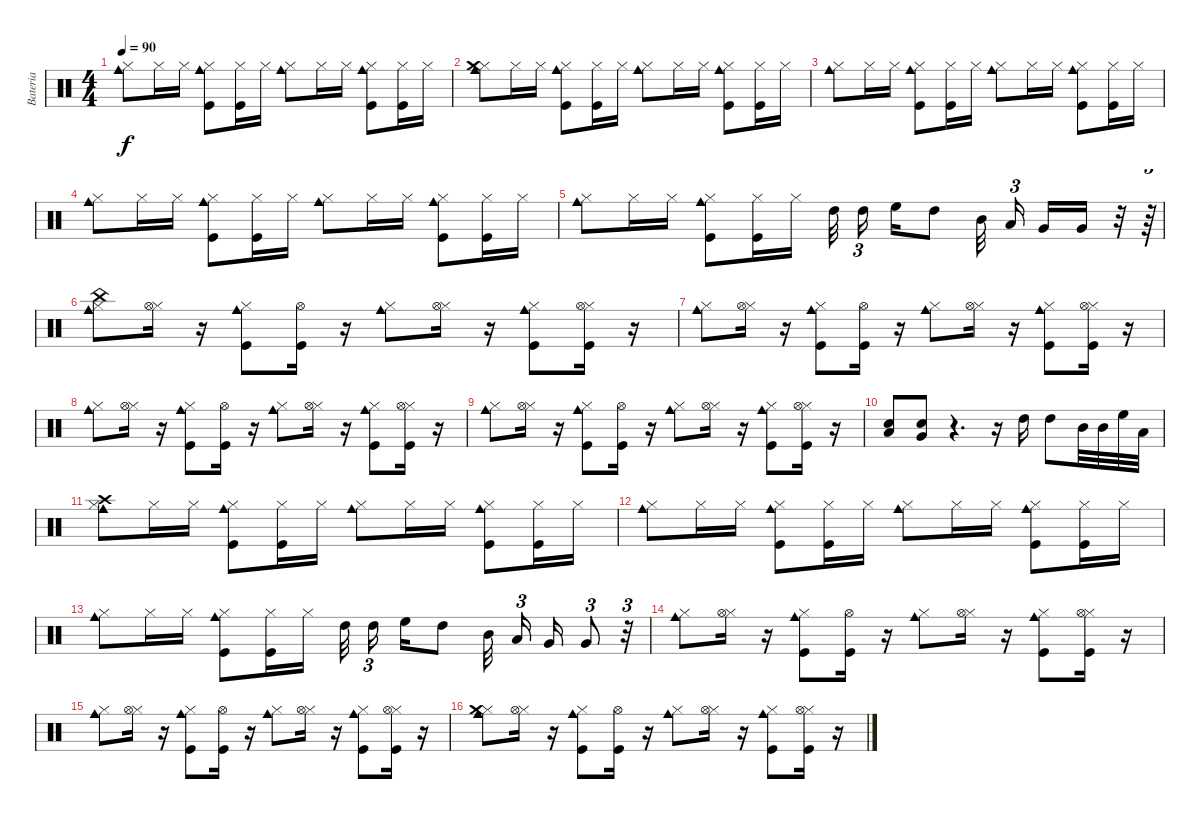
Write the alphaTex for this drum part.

\track ("Bateria" "Bateria") {instrument percussion}
\staff {score}
\articulation defaults
\ts (4 4)
\tempo 90
\clef neutral
\ks c
("Hi-Hat (closed)" "Cowbell medium (hit)").8{dy f} "Hi-Hat (closed)".16 "Hi-Hat (closed)".16 ("Hi-Hat (closed)" "Kick (hit)" "Cowbell medium (hit)").8 ("Hi-Hat (closed)" "Kick (hit)").16 "Hi-Hat (closed)".16 ("Hi-Hat (closed)" "Cowbell medium (hit)").8 "Hi-Hat (closed)".16 "Hi-Hat (closed)".16 ("Hi-Hat (closed)" "Kick (hit)" "Cowbell medium (hit)").8 ("Hi-Hat (closed)" "Kick (hit)").16 "Hi-Hat (closed)".16 |
("Hi-Hat (closed)" "Crash medium (hit)" "Cowbell medium (hit)").8 "Hi-Hat (closed)".16 "Hi-Hat (closed)".16 ("Hi-Hat (closed)" "Kick (hit)" "Cowbell medium (hit)").8 ("Hi-Hat (closed)" "Kick (hit)").16 "Hi-Hat (closed)".16 ("Hi-Hat (closed)" "Cowbell medium (hit)").8 "Hi-Hat (closed)".16 "Hi-Hat (closed)".16 ("Hi-Hat (closed)" "Kick (hit)" "Cowbell medium (hit)").8 ("Hi-Hat (closed)" "Kick (hit)").16 "Hi-Hat (closed)".16 |
("Hi-Hat (closed)" "Cowbell medium (hit)").8 "Hi-Hat (closed)".16 "Hi-Hat (closed)".16 ("Hi-Hat (closed)" "Kick (hit)" "Cowbell medium (hit)").8 ("Hi-Hat (closed)" "Kick (hit)").16 "Hi-Hat (closed)".16 ("Hi-Hat (closed)" "Cowbell medium (hit)").8 "Hi-Hat (closed)".16 "Hi-Hat (closed)".16 ("Hi-Hat (closed)" "Kick (hit)" "Cowbell medium (hit)").8 ("Hi-Hat (closed)" "Kick (hit)").16 "Hi-Hat (closed)".16 |
("Hi-Hat (closed)" "Cowbell medium (hit)").8 "Hi-Hat (closed)".16 "Hi-Hat (closed)".16 ("Hi-Hat (closed)" "Kick (hit)" "Cowbell medium (hit)").8 ("Hi-Hat (closed)" "Kick (hit)").16 "Hi-Hat (closed)".16 ("Hi-Hat (closed)" "Cowbell medium (hit)").8 "Hi-Hat (closed)".16 "Hi-Hat (closed)".16 ("Hi-Hat (closed)" "Kick (hit)" "Cowbell medium (hit)").8 ("Hi-Hat (closed)" "Kick (hit)").16 "Hi-Hat (closed)".16 |
("Hi-Hat (closed)" "Cowbell medium (hit)").8 "Hi-Hat (closed)".16 "Hi-Hat (closed)".16 ("Hi-Hat (closed)" "Kick (hit)" "Cowbell medium (hit)").8 ("Hi-Hat (closed)" "Kick (hit)").16 "Hi-Hat (closed)".16 "High Tom (hit)".32{beam splitsecondary} "High Tom (hit)".16{tu (3 2) beam splitsecondary} "High Floor Tom (hit)".16 "High Tom (hit)".8 "Mid Tom (hit)".32{beam splitsecondary} "Low Tom (hit)".16{tu (3 2) beam splitsecondary} "Very Low Tom (hit)".16 "Very Low Tom (hit)".16 r.32 r.64{tu (3 2)} |
("Hi-Hat (closed)" "China (hit)" "Cowbell medium (hit)").8 ("Hi-Hat (closed)" "Hi-Hat (open)").16 r.16 ("Hi-Hat (closed)" "Kick (hit)" "Cowbell medium (hit)").8 ("Kick (hit)" "Hi-Hat (open)").16 r.16 ("Hi-Hat (closed)" "Cowbell medium (hit)").8 ("Hi-Hat (closed)" "Hi-Hat (open)").16 r.16 ("Hi-Hat (closed)" "Kick (hit)" "Cowbell medium (hit)").8 ("Hi-Hat (closed)" "Kick (hit)" "Hi-Hat (open)").16 r.16 |
("Hi-Hat (closed)" "Cowbell medium (hit)").8 ("Hi-Hat (closed)" "Hi-Hat (open)").16 r.16 ("Hi-Hat (closed)" "Kick (hit)" "Cowbell medium (hit)").8 ("Kick (hit)" "Hi-Hat (open)").16 r.16 ("Hi-Hat (closed)" "Cowbell medium (hit)").8 ("Hi-Hat (closed)" "Hi-Hat (open)").16 r.16 ("Hi-Hat (closed)" "Kick (hit)" "Cowbell medium (hit)").8 ("Hi-Hat (closed)" "Kick (hit)" "Hi-Hat (open)").16 r.16 |
("Hi-Hat (closed)" "Cowbell medium (hit)").8 ("Hi-Hat (closed)" "Hi-Hat (open)").16 r.16 ("Hi-Hat (closed)" "Kick (hit)" "Cowbell medium (hit)").8 ("Kick (hit)" "Hi-Hat (open)").16 r.16 ("Hi-Hat (closed)" "Cowbell medium (hit)").8 ("Hi-Hat (closed)" "Hi-Hat (open)").16 r.16 ("Hi-Hat (closed)" "Kick (hit)" "Cowbell medium (hit)").8 ("Hi-Hat (closed)" "Kick (hit)" "Hi-Hat (open)").16 r.16 |
("Hi-Hat (closed)" "Cowbell medium (hit)").8 ("Hi-Hat (closed)" "Hi-Hat (open)").16 r.16 ("Hi-Hat (closed)" "Kick (hit)" "Cowbell medium (hit)").8 ("Kick (hit)" "Hi-Hat (open)").16 r.16 ("Hi-Hat (closed)" "Cowbell medium (hit)").8 ("Hi-Hat (closed)" "Hi-Hat (open)").16 r.16 ("Hi-Hat (closed)" "Kick (hit)" "Cowbell medium (hit)").8 ("Hi-Hat (closed)" "Kick (hit)" "Hi-Hat (open)").16 r.16 |
("Snare (hit) 2" "Low Tom (hit)").8 ("Snare (hit) 2" "Very Low Tom (hit)").8 r.4{d} r.16 "High Tom (hit)".16 "High Tom (hit)".8 "Mid Tom (hit)".32 "Mid Tom (hit)".32 "High Floor Tom (hit)".32 "Low Tom (hit)".32 |
("Hi-Hat (closed)" "Crash high (hit)" "Cowbell medium (hit)").8 "Hi-Hat (closed)".16 "Hi-Hat (closed)".16 ("Hi-Hat (closed)" "Kick (hit)" "Cowbell medium (hit)").8 ("Hi-Hat (closed)" "Kick (hit)").16 "Hi-Hat (closed)".16 ("Hi-Hat (closed)" "Cowbell medium (hit)").8 "Hi-Hat (closed)".16 "Hi-Hat (closed)".16 ("Hi-Hat (closed)" "Kick (hit)" "Cowbell medium (hit)").8 ("Hi-Hat (closed)" "Kick (hit)").16 "Hi-Hat (closed)".16 |
("Hi-Hat (closed)" "Cowbell medium (hit)").8 "Hi-Hat (closed)".16 "Hi-Hat (closed)".16 ("Hi-Hat (closed)" "Kick (hit)" "Cowbell medium (hit)").8 ("Hi-Hat (closed)" "Kick (hit)").16 "Hi-Hat (closed)".16 ("Hi-Hat (closed)" "Cowbell medium (hit)").8 "Hi-Hat (closed)".16 "Hi-Hat (closed)".16 ("Hi-Hat (closed)" "Kick (hit)" "Cowbell medium (hit)").8 ("Hi-Hat (closed)" "Kick (hit)").16 "Hi-Hat (closed)".16 |
("Hi-Hat (closed)" "Cowbell medium (hit)").8 "Hi-Hat (closed)".16 "Hi-Hat (closed)".16 ("Hi-Hat (closed)" "Kick (hit)" "Cowbell medium (hit)").8 ("Hi-Hat (closed)" "Kick (hit)").16 "Hi-Hat (closed)".16 "High Tom (hit)".32{beam splitsecondary} "High Tom (hit)".16{tu (3 2) beam splitsecondary} "High Floor Tom (hit)".16 "High Tom (hit)".8 "Mid Tom (hit)".32{beam splitsecondary} "Low Tom (hit)".16{tu (3 2) beam splitsecondary} "Very Low Tom (hit)".16 "Very Low Tom (hit)".8{tu (3 2)} r.32{tu (3 2)} |
("Hi-Hat (closed)" "Cowbell medium (hit)").8 ("Hi-Hat (closed)" "Hi-Hat (open)").16 r.16 ("Hi-Hat (closed)" "Kick (hit)" "Cowbell medium (hit)").8 ("Kick (hit)" "Hi-Hat (open)").16 r.16 ("Hi-Hat (closed)" "Cowbell medium (hit)").8 ("Hi-Hat (closed)" "Hi-Hat (open)").16 r.16 ("Hi-Hat (closed)" "Kick (hit)" "Cowbell medium (hit)").8 ("Hi-Hat (closed)" "Kick (hit)" "Hi-Hat (open)").16 r.16 |
("Hi-Hat (closed)" "Cowbell medium (hit)").8 ("Hi-Hat (closed)" "Hi-Hat (open)").16 r.16 ("Hi-Hat (closed)" "Kick (hit)" "Cowbell medium (hit)").8 ("Kick (hit)" "Hi-Hat (open)").16 r.16 ("Hi-Hat (closed)" "Cowbell medium (hit)").8 ("Hi-Hat (closed)" "Hi-Hat (open)").16 r.16 ("Hi-Hat (closed)" "Kick (hit)" "Cowbell medium (hit)").8 ("Hi-Hat (closed)" "Kick (hit)" "Hi-Hat (open)").16 r.16 |
("Hi-Hat (closed)" "Crash medium (hit)" "Cowbell medium (hit)").8 ("Hi-Hat (closed)" "Hi-Hat (open)").16 r.16 ("Hi-Hat (closed)" "Kick (hit)" "Cowbell medium (hit)").8 ("Kick (hit)" "Hi-Hat (open)").16 r.16 ("Hi-Hat (closed)" "Cowbell medium (hit)").8 ("Hi-Hat (closed)" "Hi-Hat (open)").16 r.16 ("Hi-Hat (closed)" "Kick (hit)" "Cowbell medium (hit)").8 ("Hi-Hat (closed)" "Kick (hit)" "Hi-Hat (open)").16 r.16
